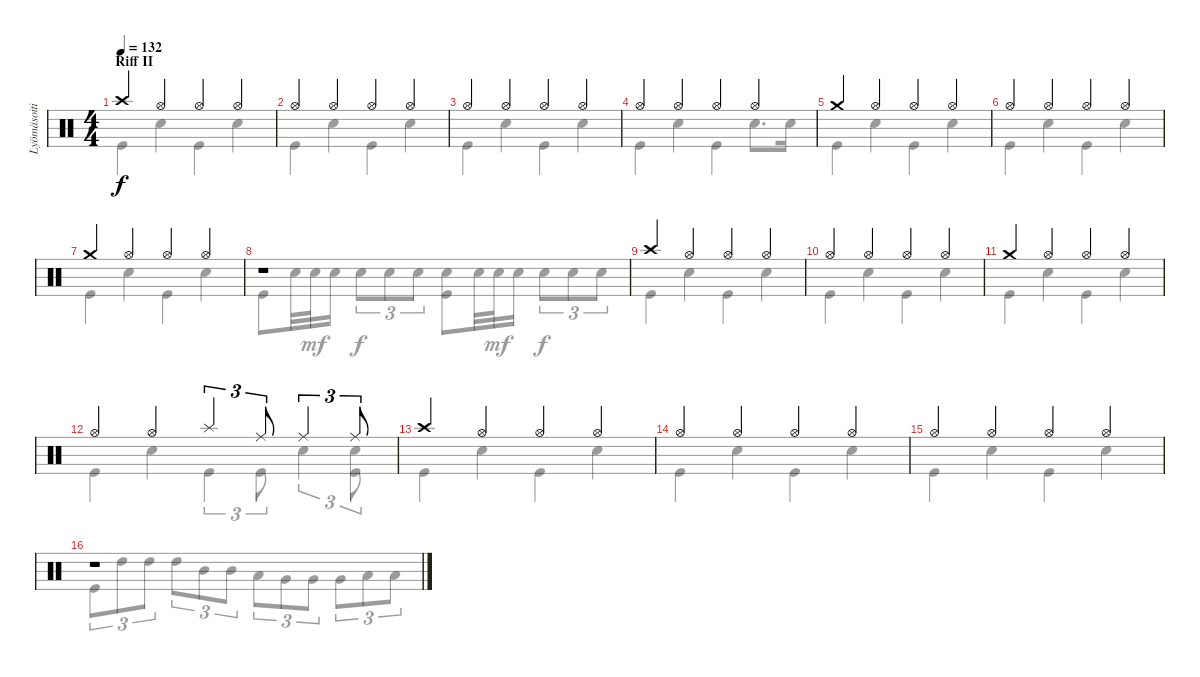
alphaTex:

\track ("Lyömäsoitin" "Lyömäsoiti") {instrument percussion}
\staff {score}
\articulation defaults
\voice
\ts (4 4)
\section ("" "Riff II")
\tempo 132
\clef neutral
\ks c "Crash high (hit)".4{dy f} "Hi-Hat (open)".4 "Hi-Hat (open)".4 "Hi-Hat (open)".4
|
"Hi-Hat (open)".4 "Hi-Hat (open)".4 "Hi-Hat (open)".4 "Hi-Hat (open)".4 |
"Hi-Hat (open)".4 "Hi-Hat (open)".4 "Hi-Hat (open)".4 "Hi-Hat (open)".4 |
"Hi-Hat (open)".4 "Hi-Hat (open)".4 "Hi-Hat (open)".4 "Hi-Hat (open)".4 |
"Crash medium (hit)".4 "Hi-Hat (open)".4 "Hi-Hat (open)".4 "Hi-Hat (open)".4 |
"Hi-Hat (open)".4 "Hi-Hat (open)".4 "Hi-Hat (open)".4 "Hi-Hat (open)".4 |
"Crash medium (hit)".4 "Hi-Hat (open)".4 "Hi-Hat (open)".4 "Hi-Hat (open)".4 |
r.1 |
"Crash high (hit)".4 "Hi-Hat (open)".4 "Hi-Hat (open)".4 "Hi-Hat (open)".4 |
"Hi-Hat (open)".4 "Hi-Hat (open)".4 "Hi-Hat (open)".4 "Hi-Hat (open)".4 |
"Crash medium (hit)".4 "Hi-Hat (open)".4 "Hi-Hat (open)".4 "Hi-Hat (open)".4 |
"Hi-Hat (open)".4 "Hi-Hat (open)".4 "Splash (hit)".4{tu (3 2)} "Ride (middle)".8{tu (3 2)} "Ride (middle)".4{tu (3 2)} "Ride (middle)".8{tu (3 2)} |
"Crash high (hit)".4 "Hi-Hat (open)".4 "Hi-Hat (open)".4 "Hi-Hat (open)".4 |
"Hi-Hat (open)".4 "Hi-Hat (open)".4 "Hi-Hat (open)".4 "Hi-Hat (open)".4 |
"Hi-Hat (open)".4 "Hi-Hat (open)".4 "Hi-Hat (open)".4 "Hi-Hat (open)".4 |
r.1
\voice
\clef neutral
\ottava regular
\simile none
\ks c "Kick (hit)".4{dy f} "Snare (hit) 2".4 "Kick (hit)".4 "Snare (hit) 2".4
|
"Kick (hit)".4 "Snare (hit) 2".4 "Kick (hit)".4 "Snare (hit) 2".4 |
"Kick (hit)".4 "Snare (hit) 2".4 "Kick (hit)".4 "Snare (hit) 2".4 |
"Kick (hit)".4 "Snare (hit) 2".4 "Kick (hit)".4 "Snare (hit) 2".8{d} "Snare (hit) 2".16 |
"Kick (hit)".4 "Snare (hit) 2".4 "Kick (hit)".4 "Snare (hit) 2".4 |
"Kick (hit)".4 "Snare (hit) 2".4 "Kick (hit)".4 "Snare (hit) 2".4 |
"Kick (hit)".4 "Snare (hit) 2".4 "Kick (hit)".4 "Snare (hit) 2".4 |
"Kick (hit)".8 "Snare (hit) 2".32 "Snare (hit) 2".32{dy mf} "Snare (hit) 2".16 "Snare (hit) 2".8{tu (3 2) dy f} "Snare (hit) 2".8{tu (3 2)} "Snare (hit) 2".8{tu (3 2)} ("Snare (hit) 2" "Kick (hit)").8 "Snare (hit) 2".32 "Snare (hit) 2".32{dy mf} "Snare (hit) 2".16 "Snare (hit) 2".8{tu (3 2) dy f} "Snare (hit) 2".8{tu (3 2)} "Snare (hit) 2".8{tu (3 2)} |
"Kick (hit)".4 "Snare (hit) 2".4 "Kick (hit)".4 "Snare (hit) 2".4 |
"Kick (hit)".4 "Snare (hit) 2".4 "Kick (hit)".4 "Snare (hit) 2".4 |
"Kick (hit)".4 "Snare (hit) 2".4 "Kick (hit)".4 "Snare (hit) 2".4 |
"Kick (hit)".4 "Snare (hit) 2".4 "Kick (hit)".4{tu (3 2)} "Kick (hit)".8{tu (3 2)} "Snare (hit) 2".4{tu (3 2)} ("Snare (hit) 2" "Kick (hit)").8{tu (3 2)} |
"Kick (hit)".4 "Snare (hit) 2".4 "Kick (hit)".4 "Snare (hit) 2".4 |
"Kick (hit)".4 "Snare (hit) 2".4 "Kick (hit)".4 "Snare (hit) 2".4 |
"Kick (hit)".4 "Snare (hit) 2".4 "Kick (hit)".4 "Snare (hit) 2".4 |
"Kick (hit)".8{tu (3 2)} "High Tom (hit)".8{tu (3 2)} "High Tom (hit)".8{tu (3 2)} "High Tom (hit)".8{tu (3 2)} "Mid Tom (hit)".8{tu (3 2)} "Mid Tom (hit)".8{tu (3 2)} "Low Tom (hit)".8{tu (3 2)} "Very Low Tom (hit)".8{tu (3 2)} "Very Low Tom (hit)".8{tu (3 2)} "Very Low Tom (hit)".8{tu (3 2)} "Low Floor Tom (hit)".8{tu (3 2)} "Low Floor Tom (hit)".8{tu (3 2)}
